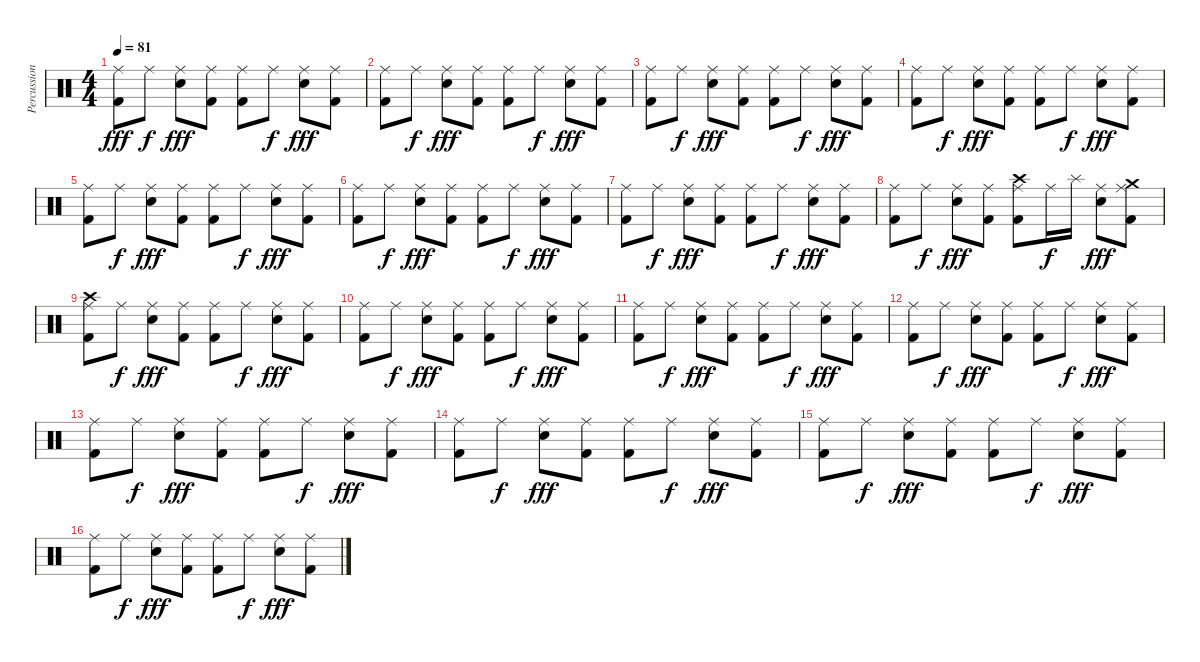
\track ("Percussion" "Percussion") {instrument percussion}
\staff {score}
\articulation defaults
\ts (4 4)
\tempo 81
\clef neutral
\ks c
("Ride (middle)" "Kick (hit) 2").8{dy fff} "Ride (middle)".8{dy f} ("Ride (middle)" "Snare (hit) 2").8{dy fff} ("Ride (middle)" "Kick (hit) 2").8 ("Ride (middle)" "Kick (hit) 2").8 "Ride (middle)".8{dy f} ("Ride (middle)" "Snare (hit) 2").8{dy fff} ("Ride (middle)" "Kick (hit) 2").8 |
("Ride (middle)" "Kick (hit) 2").8 "Ride (middle)".8{dy f} ("Ride (middle)" "Snare (hit) 2").8{dy fff} ("Ride (middle)" "Kick (hit) 2").8 ("Ride (middle)" "Kick (hit) 2").8 "Ride (middle)".8{dy f} ("Ride (middle)" "Snare (hit) 2").8{dy fff} ("Ride (middle)" "Kick (hit) 2").8 |
("Ride (middle)" "Kick (hit) 2").8 "Ride (middle)".8{dy f} ("Ride (middle)" "Snare (hit) 2").8{dy fff} ("Ride (middle)" "Kick (hit) 2").8 ("Ride (middle)" "Kick (hit) 2").8 "Ride (middle)".8{dy f} ("Ride (middle)" "Snare (hit) 2").8{dy fff} ("Ride (middle)" "Kick (hit) 2").8 |
("Ride (middle)" "Kick (hit) 2").8 "Ride (middle)".8{dy f} ("Ride (middle)" "Snare (hit) 2").8{dy fff} ("Ride (middle)" "Kick (hit) 2").8 ("Ride (middle)" "Kick (hit) 2").8 "Ride (middle)".8{dy f} ("Ride (middle)" "Snare (hit) 2").8{dy fff} ("Ride (middle)" "Kick (hit) 2").8 |
("Ride (middle)" "Kick (hit) 2").8 "Ride (middle)".8{dy f} ("Ride (middle)" "Snare (hit) 2").8{dy fff} ("Ride (middle)" "Kick (hit) 2").8 ("Ride (middle)" "Kick (hit) 2").8 "Ride (middle)".8{dy f} ("Ride (middle)" "Snare (hit) 2").8{dy fff} ("Ride (middle)" "Kick (hit) 2").8 |
("Ride (middle)" "Kick (hit) 2").8 "Ride (middle)".8{dy f} ("Ride (middle)" "Snare (hit) 2").8{dy fff} ("Ride (middle)" "Kick (hit) 2").8 ("Ride (middle)" "Kick (hit) 2").8 "Ride (middle)".8{dy f} ("Ride (middle)" "Snare (hit) 2").8{dy fff} ("Ride (middle)" "Kick (hit) 2").8 |
("Ride (middle)" "Kick (hit) 2").8 "Ride (middle)".8{dy f} ("Ride (middle)" "Snare (hit) 2").8{dy fff} ("Ride (middle)" "Kick (hit) 2").8 ("Ride (middle)" "Kick (hit) 2").8 "Ride (middle)".8{dy f} ("Ride (middle)" "Snare (hit) 2").8{dy fff} ("Ride (middle)" "Kick (hit) 2").8 |
("Ride (middle)" "Kick (hit) 2").8 "Ride (middle)".8{dy f} ("Ride (middle)" "Snare (hit) 2").8{dy fff} ("Ride (middle)" "Kick (hit) 2").8 ("Crash high (hit)" "Ride (middle)" "Kick (hit) 2").8 "Ride (middle)".16{dy f} "Splash (hit)".16 ("Ride (middle)" "Snare (hit) 2").8{dy fff} ("Crash medium (hit)" "Ride (middle)" "Kick (hit) 2").8 |
("Crash high (hit)" "Ride (middle)" "Kick (hit) 2").8 "Ride (middle)".8{dy f} ("Ride (middle)" "Snare (hit) 2").8{dy fff} ("Ride (middle)" "Kick (hit) 2").8 ("Ride (middle)" "Kick (hit) 2").8 "Ride (middle)".8{dy f} ("Ride (middle)" "Snare (hit) 2").8{dy fff} ("Ride (middle)" "Kick (hit) 2").8 |
("Ride (middle)" "Kick (hit) 2").8 "Ride (middle)".8{dy f} ("Ride (middle)" "Snare (hit) 2").8{dy fff} ("Ride (middle)" "Kick (hit) 2").8 ("Ride (middle)" "Kick (hit) 2").8 "Ride (middle)".8{dy f} ("Ride (middle)" "Snare (hit) 2").8{dy fff} ("Ride (middle)" "Kick (hit) 2").8 |
("Ride (middle)" "Kick (hit) 2").8 "Ride (middle)".8{dy f} ("Ride (middle)" "Snare (hit) 2").8{dy fff} ("Ride (middle)" "Kick (hit) 2").8 ("Ride (middle)" "Kick (hit) 2").8 "Ride (middle)".8{dy f} ("Ride (middle)" "Snare (hit) 2").8{dy fff} ("Ride (middle)" "Kick (hit) 2").8 |
("Ride (middle)" "Kick (hit) 2").8 "Ride (middle)".8{dy f} ("Ride (middle)" "Snare (hit) 2").8{dy fff} ("Ride (middle)" "Kick (hit) 2").8 ("Ride (middle)" "Kick (hit) 2").8 "Ride (middle)".8{dy f} ("Ride (middle)" "Snare (hit) 2").8{dy fff} ("Ride (middle)" "Kick (hit) 2").8 |
("Ride (middle)" "Kick (hit) 2").8 "Ride (middle)".8{dy f} ("Ride (middle)" "Snare (hit) 2").8{dy fff} ("Ride (middle)" "Kick (hit) 2").8 ("Ride (middle)" "Kick (hit) 2").8 "Ride (middle)".8{dy f} ("Ride (middle)" "Snare (hit) 2").8{dy fff} ("Ride (middle)" "Kick (hit) 2").8 |
("Ride (middle)" "Kick (hit) 2").8 "Ride (middle)".8{dy f} ("Ride (middle)" "Snare (hit) 2").8{dy fff} ("Ride (middle)" "Kick (hit) 2").8 ("Ride (middle)" "Kick (hit) 2").8 "Ride (middle)".8{dy f} ("Ride (middle)" "Snare (hit) 2").8{dy fff} ("Ride (middle)" "Kick (hit) 2").8 |
("Ride (middle)" "Kick (hit) 2").8 "Ride (middle)".8{dy f} ("Ride (middle)" "Snare (hit) 2").8{dy fff} ("Ride (middle)" "Kick (hit) 2").8 ("Ride (middle)" "Kick (hit) 2").8 "Ride (middle)".8{dy f} ("Ride (middle)" "Snare (hit) 2").8{dy fff} ("Ride (middle)" "Kick (hit) 2").8 |
("Ride (middle)" "Kick (hit) 2").8 "Ride (middle)".8{dy f} ("Ride (middle)" "Snare (hit) 2").8{dy fff} ("Ride (middle)" "Kick (hit) 2").8 ("Ride (middle)" "Kick (hit) 2").8 "Ride (middle)".8{dy f} ("Ride (middle)" "Snare (hit) 2").8{dy fff} ("Ride (middle)" "Kick (hit) 2").8
